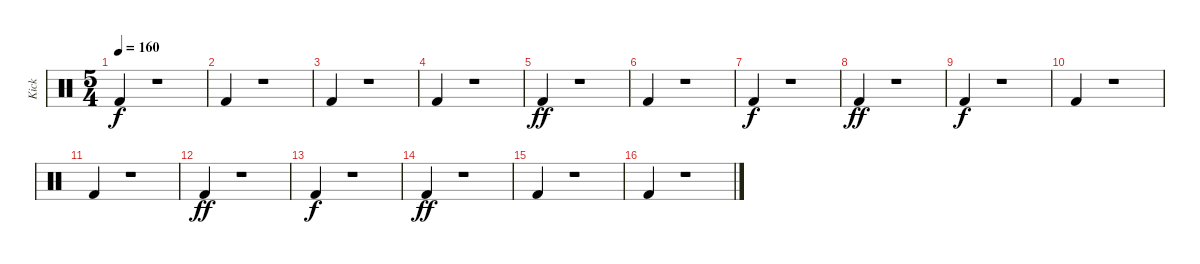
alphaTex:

\track ("Kick" "Kick") {instrument percussion}
\staff {score}
\articulation defaults
\ts (5 4)
\tempo 160
\clef neutral
\ks c "Kick (hit) 2".4{dy f}
r.1 |
"Kick (hit) 2".4 r.1 |
"Kick (hit) 2".4 r.1 |
"Kick (hit) 2".4 r.1 |
"Kick (hit) 2".4{dy ff} r.1 |
"Kick (hit) 2".4 r.1 |
"Kick (hit) 2".4{dy f} r.1 |
"Kick (hit) 2".4{dy ff} r.1 |
"Kick (hit) 2".4{dy f} r.1 |
"Kick (hit) 2".4 r.1 |
"Kick (hit) 2".4 r.1 |
"Kick (hit) 2".4{dy ff} r.1 |
"Kick (hit) 2".4{dy f} r.1 |
"Kick (hit) 2".4{dy ff} r.1 |
"Kick (hit) 2".4 r.1 |
"Kick (hit) 2".4 r.1
